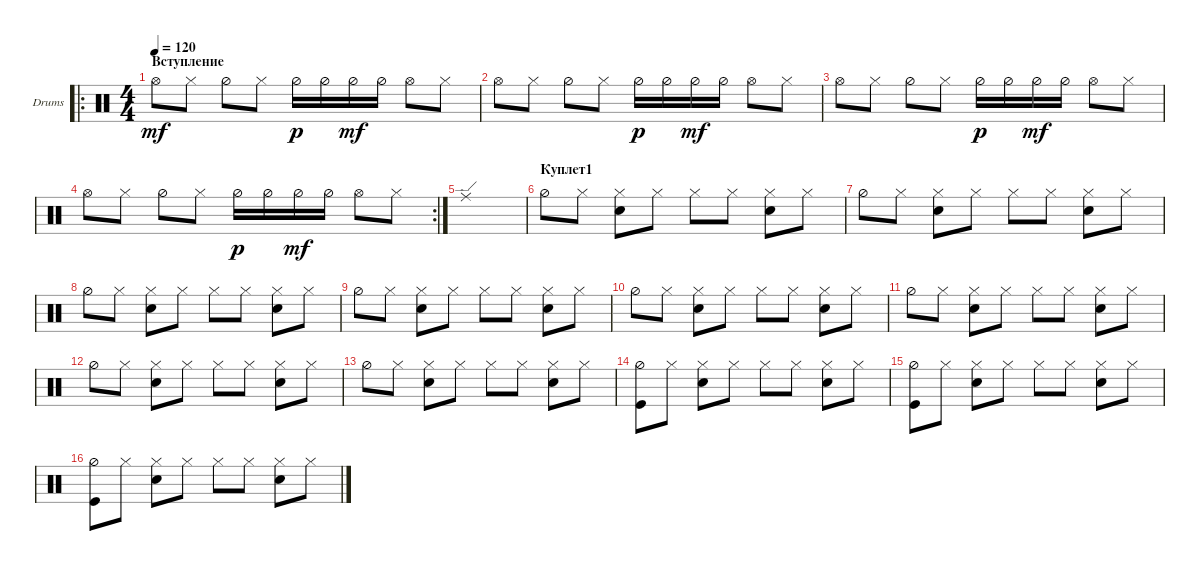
\defaultSystemsLayout 4
\bracketExtendMode groupsimilarinstruments
\firstSystemTrackNameOrientation horizontal
\otherSystemsTrackNameOrientation horizontal
\track ("Drumkit" "Drums") {instrument percussion}
\staff {score}
\articulation defaults
\ro
\ts (4 4)
\section ("" "Вступление")
\tempo 120
\clef neutral
\scale
0.5
\ks c "Hi-Hat (open)".8{dy mf} "Hi-Hat (closed)".8 "Hi-Hat (half)".8 "Hi-Hat (closed)".8 "Hi-Hat (half)".16{dy p} "Hi-Hat (half)".16 "Hi-Hat (half)".16{dy mf} "Hi-Hat (half)".16 "Hi-Hat (open)".8 "Hi-Hat (closed)".8
|
\scale
0.25 "Hi-Hat (open)".8 "Hi-Hat (closed)".8 "Hi-Hat (half)".8 "Hi-Hat (closed)".8 "Hi-Hat (half)".16{dy p} "Hi-Hat (half)".16 "Hi-Hat (half)".16{dy mf} "Hi-Hat (half)".16 "Hi-Hat (open)".8 "Hi-Hat (closed)".8 |
\scale
0.25 "Hi-Hat (open)".8 "Hi-Hat (closed)".8 "Hi-Hat (half)".8 "Hi-Hat (closed)".8 "Hi-Hat (half)".16{dy p} "Hi-Hat (half)".16 "Hi-Hat (half)".16{dy mf} "Hi-Hat (half)".16 "Hi-Hat (open)".8 "Hi-Hat (closed)".8 |
\rc 2
\scale
0.355932 "Hi-Hat (open)".8 "Hi-Hat (closed)".8 "Hi-Hat (half)".8 "Hi-Hat (closed)".8 "Hi-Hat (half)".16{dy p} "Hi-Hat (half)".16 "Hi-Hat (half)".16{dy mf} "Hi-Hat (half)".16 "Hi-Hat (open)".8 "Hi-Hat (closed)".8 |
\scale
0.322034 "Ride (edge)".1 |
\section ("" "Куплет1")
\scale
0.322034 "Hi-Hat (half)".8 "Hi-Hat (closed)".8 ("Hi-Hat (closed)" "Snare (hit) 2").8 "Hi-Hat (closed)".8 "Hi-Hat (closed)".8 "Hi-Hat (closed)".8 ("Hi-Hat (closed)" "Snare (hit) 2").8 "Hi-Hat (closed)".8 |
\scale
0.333333 "Hi-Hat (half)".8 "Hi-Hat (closed)".8 ("Hi-Hat (closed)" "Snare (hit) 2").8 "Hi-Hat (closed)".8 "Hi-Hat (closed)".8 "Hi-Hat (closed)".8 ("Hi-Hat (closed)" "Snare (hit) 2").8 "Hi-Hat (closed)".8 |
\scale
0.333333 "Hi-Hat (half)".8 "Hi-Hat (closed)".8 ("Hi-Hat (closed)" "Snare (hit) 2").8 "Hi-Hat (closed)".8 "Hi-Hat (closed)".8 "Hi-Hat (closed)".8 ("Hi-Hat (closed)" "Snare (hit) 2").8 "Hi-Hat (closed)".8 |
\scale
0.333333 "Hi-Hat (half)".8 "Hi-Hat (closed)".8 ("Hi-Hat (closed)" "Snare (hit) 2").8 "Hi-Hat (closed)".8 "Hi-Hat (closed)".8 "Hi-Hat (closed)".8 ("Hi-Hat (closed)" "Snare (hit) 2").8 "Hi-Hat (closed)".8 |
\scale
0.333333 "Hi-Hat (half)".8 "Hi-Hat (closed)".8 ("Hi-Hat (closed)" "Snare (hit) 2").8 "Hi-Hat (closed)".8 "Hi-Hat (closed)".8 "Hi-Hat (closed)".8 ("Hi-Hat (closed)" "Snare (hit) 2").8 "Hi-Hat (closed)".8 |
\scale
0.333333 "Hi-Hat (half)".8 "Hi-Hat (closed)".8 ("Hi-Hat (closed)" "Snare (hit) 2").8 "Hi-Hat (closed)".8 "Hi-Hat (closed)".8 "Hi-Hat (closed)".8 ("Hi-Hat (closed)" "Snare (hit) 2").8 "Hi-Hat (closed)".8 |
\scale
0.333333 "Hi-Hat (half)".8 "Hi-Hat (closed)".8 ("Hi-Hat (closed)" "Snare (hit) 2").8 "Hi-Hat (closed)".8 "Hi-Hat (closed)".8 "Hi-Hat (closed)".8 ("Hi-Hat (closed)" "Snare (hit) 2").8 "Hi-Hat (closed)".8 |
\scale
0.333333 "Hi-Hat (half)".8 "Hi-Hat (closed)".8 ("Hi-Hat (closed)" "Snare (hit) 2").8 "Hi-Hat (closed)".8 "Hi-Hat (closed)".8 "Hi-Hat (closed)".8 ("Hi-Hat (closed)" "Snare (hit) 2").8 "Hi-Hat (closed)".8 |
\scale
0.333333 ("Hi-Hat (half)" "Kick (hit)").8 "Hi-Hat (closed)".8 ("Hi-Hat (closed)" "Snare (hit) 2").8 "Hi-Hat (closed)".8 "Hi-Hat (closed)".8 "Hi-Hat (closed)".8 ("Hi-Hat (closed)" "Snare (hit) 2").8 "Hi-Hat (closed)".8 |
\scale
0.333333 ("Hi-Hat (half)" "Kick (hit)").8 "Hi-Hat (closed)".8 ("Hi-Hat (closed)" "Snare (hit) 2").8 "Hi-Hat (closed)".8 "Hi-Hat (closed)".8 "Hi-Hat (closed)".8 ("Hi-Hat (closed)" "Snare (hit) 2").8 "Hi-Hat (closed)".8 |
\scale
0.333333 ("Hi-Hat (half)" "Kick (hit)").8 "Hi-Hat (closed)".8 ("Hi-Hat (closed)" "Snare (hit) 2").8 "Hi-Hat (closed)".8 "Hi-Hat (closed)".8 "Hi-Hat (closed)".8 ("Hi-Hat (closed)" "Snare (hit) 2").8 "Hi-Hat (closed)".8
